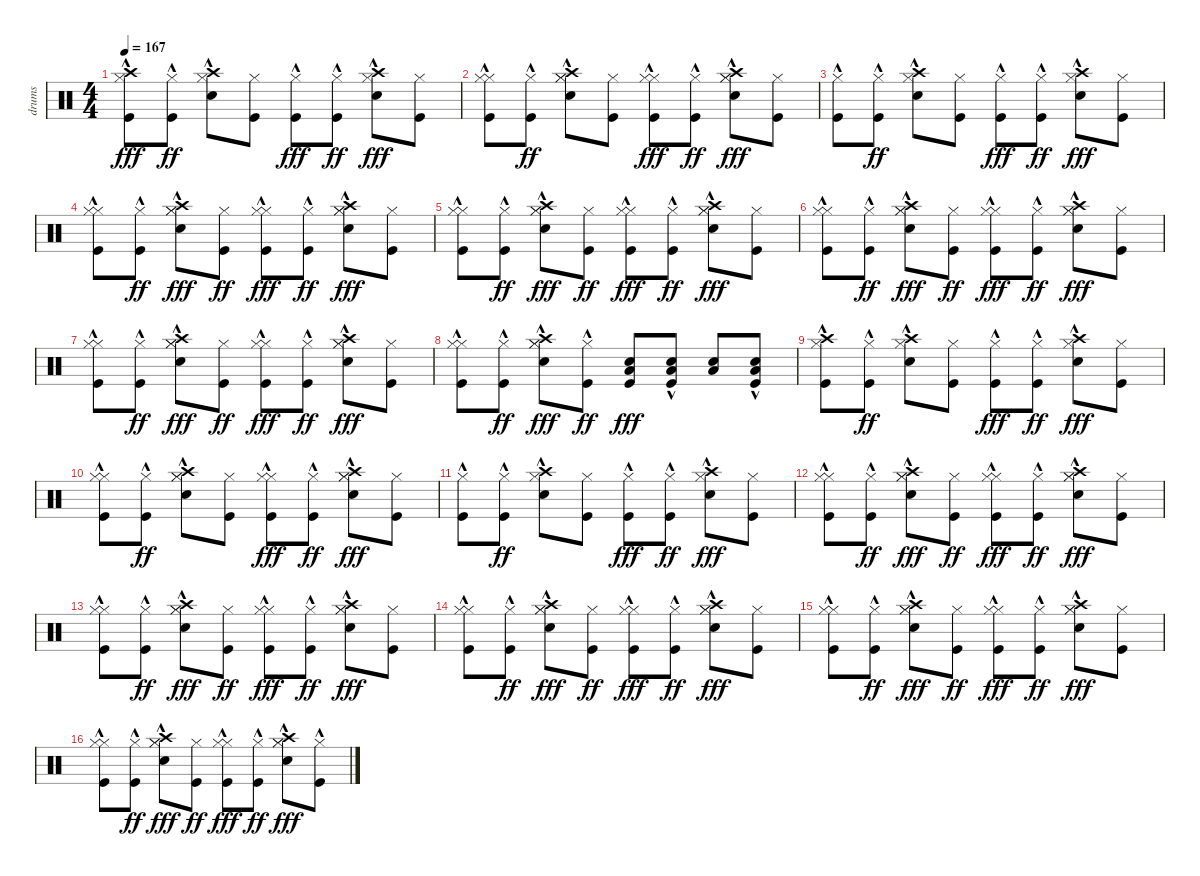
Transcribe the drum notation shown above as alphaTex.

\track ("drums" "drums") {instrument percussion}
\staff {score}
\articulation defaults
\ts (4 4)
\tempo 167
\clef neutral
\ks c
("Kick (hit)" "Hi-Hat (closed)"{hac} "Crash high (hit)"{hac}).8{dy fff} ("Kick (hit)"{hac} "Hi-Hat (closed)").8{dy ff} ("Snare (hit) 2"{hac} "Hi-Hat (closed)"{hac} "Crash high (hit)").8 ("Kick (hit)" "Hi-Hat (closed)").8 ("Kick (hit)" "Hi-Hat (closed)"{hac}).8{dy fff} ("Kick (hit)"{hac} "Hi-Hat (closed)").8{dy ff} ("Crash high (hit)" "Snare (hit) 2"{hac} "Hi-Hat (closed)"{hac}).8{dy fff} ("Hi-Hat (closed)" "Kick (hit)").8 |
("Kick (hit)" "Hi-Hat (closed)"{hac} "Hi-Hat (closed)"{hac}).8 ("Kick (hit)"{hac} "Hi-Hat (closed)").8{dy ff} ("Snare (hit) 2"{hac} "Hi-Hat (closed)"{hac} "Hi-Hat (closed)"{hac} "Crash high (hit)").8 ("Kick (hit)" "Hi-Hat (closed)").8 ("Kick (hit)" "Hi-Hat (closed)"{hac} "Hi-Hat (closed)"{hac}).8{dy fff} ("Kick (hit)"{hac} "Hi-Hat (closed)").8{dy ff} ("Crash high (hit)" "Snare (hit) 2"{hac} "Hi-Hat (closed)"{hac} "Hi-Hat (closed)"{hac}).8{dy fff} ("Hi-Hat (closed)" "Kick (hit)").8 |
("Kick (hit)" "Hi-Hat (closed)"{hac}).8 ("Kick (hit)"{hac} "Hi-Hat (closed)").8{dy ff} ("Snare (hit) 2"{hac} "Hi-Hat (closed)"{hac} "Crash high (hit)").8 ("Kick (hit)" "Hi-Hat (closed)").8 ("Kick (hit)" "Hi-Hat (closed)"{hac}).8{dy fff} ("Kick (hit)"{hac} "Hi-Hat (closed)").8{dy ff} ("Crash high (hit)" "Snare (hit) 2"{hac} "Hi-Hat (closed)"{hac}).8{dy fff} ("Hi-Hat (closed)" "Kick (hit)").8 |
("Kick (hit)" "Hi-Hat (closed)"{hac} "Hi-Hat (closed)"{hac}).8 ("Kick (hit)"{hac} "Hi-Hat (closed)").8{dy ff} ("Snare (hit) 2"{hac} "Hi-Hat (closed)"{hac} "Hi-Hat (closed)"{hac} "Crash high (hit)").8{dy fff} ("Kick (hit)" "Hi-Hat (closed)").8{dy ff} ("Kick (hit)" "Hi-Hat (closed)"{hac} "Hi-Hat (closed)"{hac}).8{dy fff} ("Kick (hit)"{hac} "Hi-Hat (closed)").8{dy ff} ("Crash high (hit)" "Snare (hit) 2"{hac} "Hi-Hat (closed)"{hac} "Hi-Hat (closed)"{hac}).8{dy fff} ("Hi-Hat (closed)" "Kick (hit)").8 |
("Kick (hit)" "Hi-Hat (closed)"{hac} "Hi-Hat (closed)"{hac}).8 ("Kick (hit)"{hac} "Hi-Hat (closed)").8{dy ff} ("Snare (hit) 2"{hac} "Hi-Hat (closed)"{hac} "Hi-Hat (closed)"{hac} "Crash high (hit)").8{dy fff} ("Kick (hit)" "Hi-Hat (closed)").8{dy ff} ("Kick (hit)" "Hi-Hat (closed)"{hac} "Hi-Hat (closed)"{hac}).8{dy fff} ("Kick (hit)"{hac} "Hi-Hat (closed)").8{dy ff} ("Crash high (hit)" "Snare (hit) 2"{hac} "Hi-Hat (closed)"{hac} "Hi-Hat (closed)"{hac}).8{dy fff} ("Hi-Hat (closed)" "Kick (hit)").8 |
("Kick (hit)" "Hi-Hat (closed)"{hac} "Hi-Hat (closed)"{hac}).8 ("Kick (hit)"{hac} "Hi-Hat (closed)").8{dy ff} ("Snare (hit) 2"{hac} "Hi-Hat (closed)"{hac} "Hi-Hat (closed)"{hac} "Crash high (hit)").8{dy fff} ("Kick (hit)" "Hi-Hat (closed)").8{dy ff} ("Kick (hit)" "Hi-Hat (closed)"{hac} "Hi-Hat (closed)"{hac}).8{dy fff} ("Kick (hit)"{hac} "Hi-Hat (closed)").8{dy ff} ("Crash high (hit)" "Snare (hit) 2"{hac} "Hi-Hat (closed)"{hac} "Hi-Hat (closed)"{hac}).8{dy fff} ("Hi-Hat (closed)" "Kick (hit)").8 |
("Kick (hit)" "Hi-Hat (closed)"{hac} "Hi-Hat (closed)"{hac}).8 ("Kick (hit)"{hac} "Hi-Hat (closed)").8{dy ff} ("Snare (hit) 2"{hac} "Hi-Hat (closed)"{hac} "Hi-Hat (closed)"{hac} "Crash high (hit)").8{dy fff} ("Kick (hit)" "Hi-Hat (closed)").8{dy ff} ("Kick (hit)" "Hi-Hat (closed)"{hac} "Hi-Hat (closed)"{hac}).8{dy fff} ("Kick (hit)"{hac} "Hi-Hat (closed)").8{dy ff} ("Crash high (hit)" "Snare (hit) 2"{hac} "Hi-Hat (closed)"{hac} "Hi-Hat (closed)"{hac}).8{dy fff} ("Hi-Hat (closed)" "Kick (hit)").8 |
("Kick (hit)" "Hi-Hat (closed)"{hac} "Hi-Hat (closed)"{hac}).8 ("Kick (hit)"{hac} "Hi-Hat (closed)").8{dy ff} ("Snare (hit) 2"{hac} "Hi-Hat (closed)"{hac} "Hi-Hat (closed)"{hac} "Crash high (hit)").8{dy fff} ("Kick (hit)" "Hi-Hat (closed)"{hac}).8{dy ff} ("Kick (hit)" "Snare (hit) 2" "Low Floor Tom (hit)").8{dy fff} ("Kick (hit)"{hac} "Snare (hit) 2" "Low Floor Tom (hit)").8 ("Snare (hit) 2" "Low Floor Tom (hit)").8 ("Low Floor Tom (hit)"{hac} "Snare (hit) 2"{hac} "Kick (hit)").8 |
("Kick (hit)" "Hi-Hat (closed)"{hac} "Crash high (hit)"{hac}).8 ("Kick (hit)"{hac} "Hi-Hat (closed)").8{dy ff} ("Snare (hit) 2"{hac} "Hi-Hat (closed)"{hac} "Crash high (hit)").8 ("Kick (hit)" "Hi-Hat (closed)").8 ("Kick (hit)" "Hi-Hat (closed)"{hac}).8{dy fff} ("Kick (hit)"{hac} "Hi-Hat (closed)").8{dy ff} ("Crash high (hit)" "Snare (hit) 2"{hac} "Hi-Hat (closed)"{hac}).8{dy fff} ("Hi-Hat (closed)" "Kick (hit)").8 |
("Kick (hit)" "Hi-Hat (closed)"{hac} "Hi-Hat (closed)"{hac}).8 ("Kick (hit)"{hac} "Hi-Hat (closed)").8{dy ff} ("Snare (hit) 2"{hac} "Hi-Hat (closed)"{hac} "Hi-Hat (closed)"{hac} "Crash high (hit)").8 ("Kick (hit)" "Hi-Hat (closed)").8 ("Kick (hit)" "Hi-Hat (closed)"{hac} "Hi-Hat (closed)"{hac}).8{dy fff} ("Kick (hit)"{hac} "Hi-Hat (closed)").8{dy ff} ("Crash high (hit)" "Snare (hit) 2"{hac} "Hi-Hat (closed)"{hac} "Hi-Hat (closed)"{hac}).8{dy fff} ("Hi-Hat (closed)" "Kick (hit)").8 |
("Kick (hit)" "Hi-Hat (closed)"{hac}).8 ("Kick (hit)"{hac} "Hi-Hat (closed)").8{dy ff} ("Snare (hit) 2"{hac} "Hi-Hat (closed)"{hac} "Crash high (hit)").8 ("Kick (hit)" "Hi-Hat (closed)").8 ("Kick (hit)" "Hi-Hat (closed)"{hac}).8{dy fff} ("Kick (hit)"{hac} "Hi-Hat (closed)").8{dy ff} ("Crash high (hit)" "Snare (hit) 2"{hac} "Hi-Hat (closed)"{hac}).8{dy fff} ("Hi-Hat (closed)" "Kick (hit)").8 |
("Kick (hit)" "Hi-Hat (closed)"{hac} "Hi-Hat (closed)"{hac}).8 ("Kick (hit)"{hac} "Hi-Hat (closed)").8{dy ff} ("Snare (hit) 2"{hac} "Hi-Hat (closed)"{hac} "Hi-Hat (closed)"{hac} "Crash high (hit)").8{dy fff} ("Kick (hit)" "Hi-Hat (closed)").8{dy ff} ("Kick (hit)" "Hi-Hat (closed)"{hac} "Hi-Hat (closed)"{hac}).8{dy fff} ("Kick (hit)"{hac} "Hi-Hat (closed)").8{dy ff} ("Crash high (hit)" "Snare (hit) 2"{hac} "Hi-Hat (closed)"{hac} "Hi-Hat (closed)"{hac}).8{dy fff} ("Hi-Hat (closed)" "Kick (hit)").8 |
("Kick (hit)" "Hi-Hat (closed)"{hac} "Hi-Hat (closed)"{hac}).8 ("Kick (hit)"{hac} "Hi-Hat (closed)").8{dy ff} ("Snare (hit) 2"{hac} "Hi-Hat (closed)"{hac} "Hi-Hat (closed)"{hac} "Crash high (hit)").8{dy fff} ("Kick (hit)" "Hi-Hat (closed)").8{dy ff} ("Kick (hit)" "Hi-Hat (closed)"{hac} "Hi-Hat (closed)"{hac}).8{dy fff} ("Kick (hit)"{hac} "Hi-Hat (closed)").8{dy ff} ("Crash high (hit)" "Snare (hit) 2"{hac} "Hi-Hat (closed)"{hac} "Hi-Hat (closed)"{hac}).8{dy fff} ("Hi-Hat (closed)" "Kick (hit)").8 |
("Kick (hit)" "Hi-Hat (closed)"{hac} "Hi-Hat (closed)"{hac}).8 ("Kick (hit)"{hac} "Hi-Hat (closed)").8{dy ff} ("Snare (hit) 2"{hac} "Hi-Hat (closed)"{hac} "Hi-Hat (closed)"{hac} "Crash high (hit)").8{dy fff} ("Kick (hit)" "Hi-Hat (closed)").8{dy ff} ("Kick (hit)" "Hi-Hat (closed)"{hac} "Hi-Hat (closed)"{hac}).8{dy fff} ("Kick (hit)"{hac} "Hi-Hat (closed)").8{dy ff} ("Crash high (hit)" "Snare (hit) 2"{hac} "Hi-Hat (closed)"{hac} "Hi-Hat (closed)"{hac}).8{dy fff} ("Hi-Hat (closed)" "Kick (hit)").8 |
("Kick (hit)" "Hi-Hat (closed)"{hac} "Hi-Hat (closed)"{hac}).8 ("Kick (hit)"{hac} "Hi-Hat (closed)").8{dy ff} ("Snare (hit) 2"{hac} "Hi-Hat (closed)"{hac} "Hi-Hat (closed)"{hac} "Crash high (hit)").8{dy fff} ("Kick (hit)" "Hi-Hat (closed)").8{dy ff} ("Kick (hit)" "Hi-Hat (closed)"{hac} "Hi-Hat (closed)"{hac}).8{dy fff} ("Kick (hit)"{hac} "Hi-Hat (closed)").8{dy ff} ("Crash high (hit)" "Snare (hit) 2"{hac} "Hi-Hat (closed)"{hac} "Hi-Hat (closed)"{hac}).8{dy fff} ("Hi-Hat (closed)" "Kick (hit)").8 |
("Kick (hit)" "Hi-Hat (closed)"{hac} "Hi-Hat (closed)"{hac}).8 ("Kick (hit)"{hac} "Hi-Hat (closed)").8{dy ff} ("Snare (hit) 2"{hac} "Hi-Hat (closed)"{hac} "Hi-Hat (closed)"{hac} "Crash high (hit)").8{dy fff} ("Kick (hit)" "Hi-Hat (closed)").8{dy ff} ("Kick (hit)" "Hi-Hat (closed)"{hac} "Hi-Hat (closed)"{hac}).8{dy fff} ("Kick (hit)"{hac} "Hi-Hat (closed)").8{dy ff} ("Crash high (hit)" "Snare (hit) 2"{hac} "Hi-Hat (closed)"{hac} "Hi-Hat (closed)"{hac}).8{dy fff} ("Hi-Hat (closed)"{hac} "Kick (hit)").8
